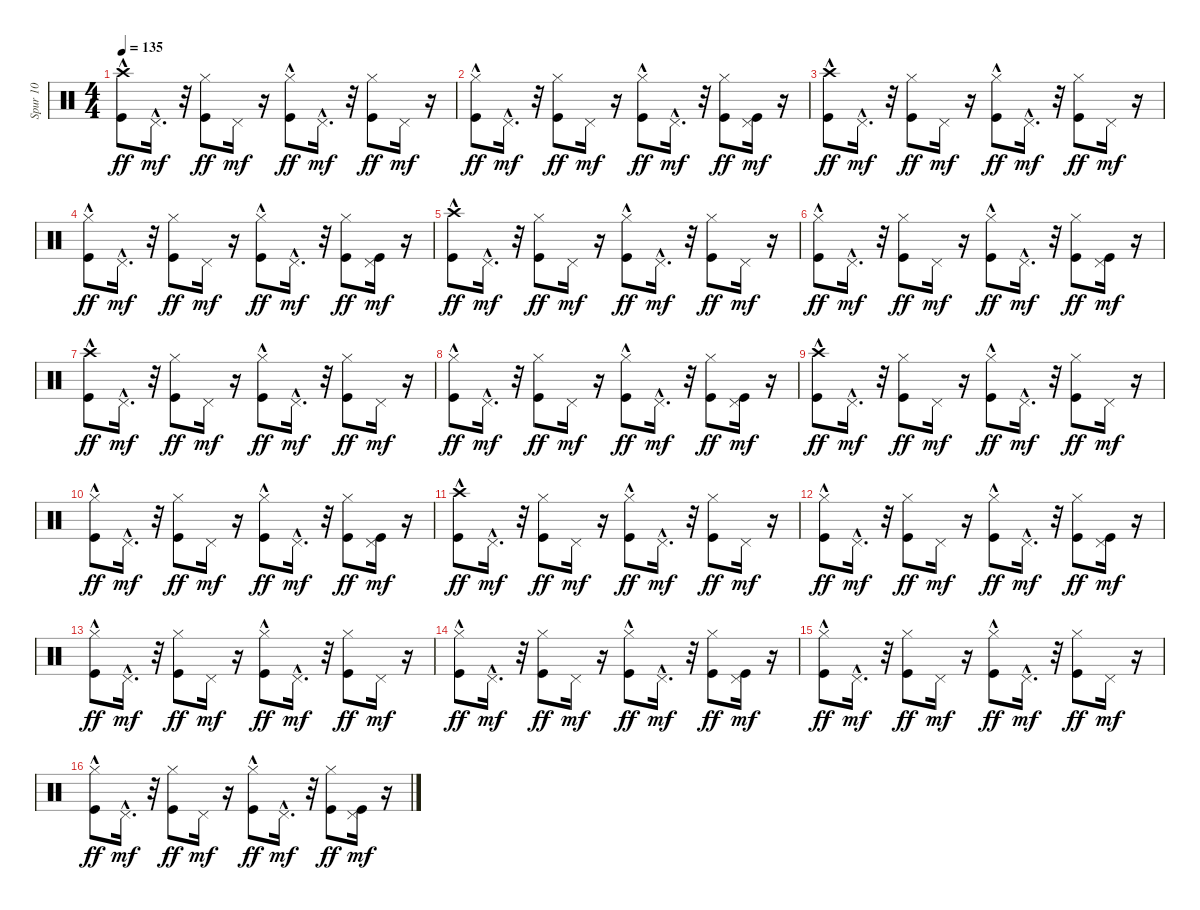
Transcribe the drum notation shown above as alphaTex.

\track ("Spur 10" "Spur 10") {instrument percussion}
\staff {score}
\articulation defaults
\ts (4 4)
\tempo 135
\clef neutral
\ks c
("Crash high (hit)"{hac} "Kick (hit)").8{dy ff} "Pedal Hi-Hat (hit)"{hac}.16{d dy mf} r.32 ("Hi-Hat (closed)" "Kick (hit)").8{dy ff} "Pedal Hi-Hat (hit)".16{dy mf} r.16 ("Hi-Hat (closed)"{hac} "Kick (hit)").8{dy ff} "Pedal Hi-Hat (hit)"{hac}.16{d dy mf} r.32 ("Hi-Hat (closed)" "Kick (hit)").8{dy ff} "Pedal Hi-Hat (hit)".16{dy mf} r.16 |
("Hi-Hat (closed)"{hac} "Kick (hit)").8{dy ff} "Pedal Hi-Hat (hit)"{hac}.16{d dy mf} r.32 ("Hi-Hat (closed)" "Kick (hit)").8{dy ff} "Pedal Hi-Hat (hit)".16{dy mf} r.16 ("Hi-Hat (closed)"{hac} "Kick (hit)").8{dy ff} "Pedal Hi-Hat (hit)"{hac}.16{d dy mf} r.32 ("Hi-Hat (closed)" "Kick (hit)").8{dy ff} ("Kick (hit)" "Pedal Hi-Hat (hit)").16{dy mf} r.16 |
("Crash high (hit)"{hac} "Kick (hit)").8{dy ff} "Pedal Hi-Hat (hit)"{hac}.16{d dy mf} r.32 ("Hi-Hat (closed)" "Kick (hit)").8{dy ff} "Pedal Hi-Hat (hit)".16{dy mf} r.16 ("Hi-Hat (closed)"{hac} "Kick (hit)").8{dy ff} "Pedal Hi-Hat (hit)"{hac}.16{d dy mf} r.32 ("Hi-Hat (closed)" "Kick (hit)").8{dy ff} "Pedal Hi-Hat (hit)".16{dy mf} r.16 |
("Hi-Hat (closed)"{hac} "Kick (hit)").8{dy ff} "Pedal Hi-Hat (hit)"{hac}.16{d dy mf} r.32 ("Hi-Hat (closed)" "Kick (hit)").8{dy ff} "Pedal Hi-Hat (hit)".16{dy mf} r.16 ("Hi-Hat (closed)"{hac} "Kick (hit)").8{dy ff} "Pedal Hi-Hat (hit)"{hac}.16{d dy mf} r.32 ("Hi-Hat (closed)" "Kick (hit)").8{dy ff} ("Kick (hit)" "Pedal Hi-Hat (hit)").16{dy mf} r.16 |
("Crash high (hit)"{hac} "Kick (hit)").8{dy ff} "Pedal Hi-Hat (hit)"{hac}.16{d dy mf} r.32 ("Hi-Hat (closed)" "Kick (hit)").8{dy ff} "Pedal Hi-Hat (hit)".16{dy mf} r.16 ("Hi-Hat (closed)"{hac} "Kick (hit)").8{dy ff} "Pedal Hi-Hat (hit)"{hac}.16{d dy mf} r.32 ("Hi-Hat (closed)" "Kick (hit)").8{dy ff} "Pedal Hi-Hat (hit)".16{dy mf} r.16 |
("Hi-Hat (closed)"{hac} "Kick (hit)").8{dy ff} "Pedal Hi-Hat (hit)"{hac}.16{d dy mf} r.32 ("Hi-Hat (closed)" "Kick (hit)").8{dy ff} "Pedal Hi-Hat (hit)".16{dy mf} r.16 ("Hi-Hat (closed)"{hac} "Kick (hit)").8{dy ff} "Pedal Hi-Hat (hit)"{hac}.16{d dy mf} r.32 ("Hi-Hat (closed)" "Kick (hit)").8{dy ff} ("Kick (hit)" "Pedal Hi-Hat (hit)").16{dy mf} r.16 |
("Crash high (hit)"{hac} "Kick (hit)").8{dy ff} "Pedal Hi-Hat (hit)"{hac}.16{d dy mf} r.32 ("Hi-Hat (closed)" "Kick (hit)").8{dy ff} "Pedal Hi-Hat (hit)".16{dy mf} r.16 ("Hi-Hat (closed)"{hac} "Kick (hit)").8{dy ff} "Pedal Hi-Hat (hit)"{hac}.16{d dy mf} r.32 ("Hi-Hat (closed)" "Kick (hit)").8{dy ff} "Pedal Hi-Hat (hit)".16{dy mf} r.16 |
("Hi-Hat (closed)"{hac} "Kick (hit)").8{dy ff} "Pedal Hi-Hat (hit)"{hac}.16{d dy mf} r.32 ("Hi-Hat (closed)" "Kick (hit)").8{dy ff} "Pedal Hi-Hat (hit)".16{dy mf} r.16 ("Hi-Hat (closed)"{hac} "Kick (hit)").8{dy ff} "Pedal Hi-Hat (hit)"{hac}.16{d dy mf} r.32 ("Hi-Hat (closed)" "Kick (hit)").8{dy ff} ("Kick (hit)" "Pedal Hi-Hat (hit)").16{dy mf} r.16 |
("Crash high (hit)"{hac} "Kick (hit)").8{dy ff} "Pedal Hi-Hat (hit)"{hac}.16{d dy mf} r.32 ("Hi-Hat (closed)" "Kick (hit)").8{dy ff} "Pedal Hi-Hat (hit)".16{dy mf} r.16 ("Hi-Hat (closed)"{hac} "Kick (hit)").8{dy ff} "Pedal Hi-Hat (hit)"{hac}.16{d dy mf} r.32 ("Hi-Hat (closed)" "Kick (hit)").8{dy ff} "Pedal Hi-Hat (hit)".16{dy mf} r.16 |
("Hi-Hat (closed)"{hac} "Kick (hit)").8{dy ff} "Pedal Hi-Hat (hit)"{hac}.16{d dy mf} r.32 ("Hi-Hat (closed)" "Kick (hit)").8{dy ff} "Pedal Hi-Hat (hit)".16{dy mf} r.16 ("Hi-Hat (closed)"{hac} "Kick (hit)").8{dy ff} "Pedal Hi-Hat (hit)"{hac}.16{d dy mf} r.32 ("Hi-Hat (closed)" "Kick (hit)").8{dy ff} ("Kick (hit)" "Pedal Hi-Hat (hit)").16{dy mf} r.16 |
("Crash high (hit)"{hac} "Kick (hit)").8{dy ff} "Pedal Hi-Hat (hit)"{hac}.16{d dy mf} r.32 ("Hi-Hat (closed)" "Kick (hit)").8{dy ff} "Pedal Hi-Hat (hit)".16{dy mf} r.16 ("Hi-Hat (closed)"{hac} "Kick (hit)").8{dy ff} "Pedal Hi-Hat (hit)"{hac}.16{d dy mf} r.32 ("Hi-Hat (closed)" "Kick (hit)").8{dy ff} "Pedal Hi-Hat (hit)".16{dy mf} r.16 |
("Hi-Hat (closed)"{hac} "Kick (hit)").8{dy ff} "Pedal Hi-Hat (hit)"{hac}.16{d dy mf} r.32 ("Hi-Hat (closed)" "Kick (hit)").8{dy ff} "Pedal Hi-Hat (hit)".16{dy mf} r.16 ("Hi-Hat (closed)"{hac} "Kick (hit)").8{dy ff} "Pedal Hi-Hat (hit)"{hac}.16{d dy mf} r.32 ("Hi-Hat (closed)" "Kick (hit)").8{dy ff} ("Kick (hit)" "Pedal Hi-Hat (hit)").16{dy mf} r.16 |
("Hi-Hat (closed)"{hac} "Kick (hit)").8{dy ff} "Pedal Hi-Hat (hit)"{hac}.16{d dy mf} r.32 ("Hi-Hat (closed)" "Kick (hit)").8{dy ff} "Pedal Hi-Hat (hit)".16{dy mf} r.16 ("Hi-Hat (closed)"{hac} "Kick (hit)").8{dy ff} "Pedal Hi-Hat (hit)"{hac}.16{d dy mf} r.32 ("Hi-Hat (closed)" "Kick (hit)").8{dy ff} "Pedal Hi-Hat (hit)".16{dy mf} r.16 |
("Hi-Hat (closed)"{hac} "Kick (hit)").8{dy ff} "Pedal Hi-Hat (hit)"{hac}.16{d dy mf} r.32 ("Hi-Hat (closed)" "Kick (hit)").8{dy ff} "Pedal Hi-Hat (hit)".16{dy mf} r.16 ("Hi-Hat (closed)"{hac} "Kick (hit)").8{dy ff} "Pedal Hi-Hat (hit)"{hac}.16{d dy mf} r.32 ("Hi-Hat (closed)" "Kick (hit)").8{dy ff} ("Kick (hit)" "Pedal Hi-Hat (hit)").16{dy mf} r.16 |
("Hi-Hat (closed)"{hac} "Kick (hit)").8{dy ff} "Pedal Hi-Hat (hit)"{hac}.16{d dy mf} r.32 ("Hi-Hat (closed)" "Kick (hit)").8{dy ff} "Pedal Hi-Hat (hit)".16{dy mf} r.16 ("Hi-Hat (closed)"{hac} "Kick (hit)").8{dy ff} "Pedal Hi-Hat (hit)"{hac}.16{d dy mf} r.32 ("Hi-Hat (closed)" "Kick (hit)").8{dy ff} "Pedal Hi-Hat (hit)".16{dy mf} r.16 |
("Hi-Hat (closed)"{hac} "Kick (hit)").8{dy ff} "Pedal Hi-Hat (hit)"{hac}.16{d dy mf} r.32 ("Hi-Hat (closed)" "Kick (hit)").8{dy ff} "Pedal Hi-Hat (hit)".16{dy mf} r.16 ("Hi-Hat (closed)"{hac} "Kick (hit)").8{dy ff} "Pedal Hi-Hat (hit)"{hac}.16{d dy mf} r.32 ("Hi-Hat (closed)" "Kick (hit)").8{dy ff} ("Kick (hit)" "Pedal Hi-Hat (hit)").16{dy mf} r.16
